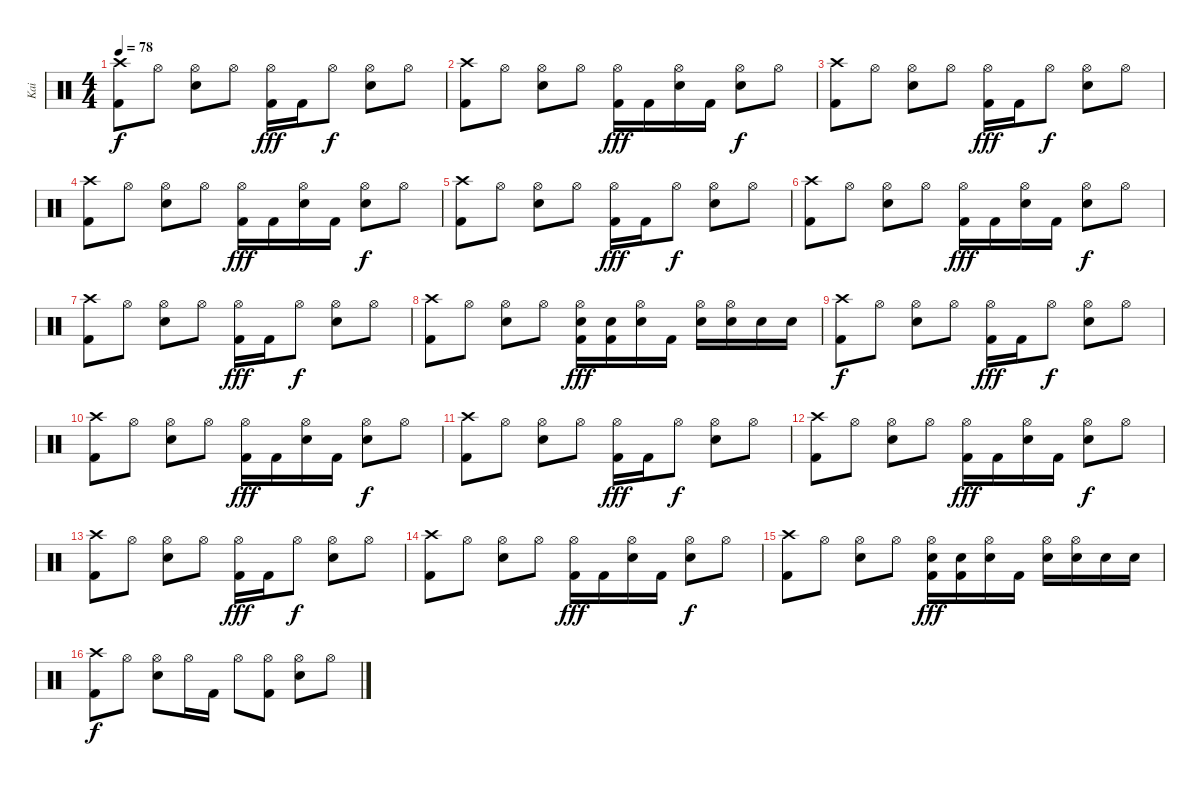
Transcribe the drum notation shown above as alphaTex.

\track ("Kai" "Kai") {instrument percussion}
\staff {score}
\articulation defaults
\ts (4 4)
\tempo 78
\clef neutral
\ks c
("Crash high (hit)" "Kick (hit) 2").8{dy f} "Hi-Hat (open)".8 ("Hi-Hat (open)" "Electric Snare (hit)").8 "Hi-Hat (open)".8 ("Hi-Hat (open)" "Kick (hit) 2").16{dy fff} "Kick (hit) 2".16 "Hi-Hat (open)".8{dy f} ("Hi-Hat (open)" "Electric Snare (hit)").8 "Hi-Hat (open)".8 |
("Crash high (hit)" "Kick (hit) 2").8 "Hi-Hat (open)".8 ("Hi-Hat (open)" "Electric Snare (hit)").8 "Hi-Hat (open)".8 ("Hi-Hat (open)" "Kick (hit) 2").16{dy fff} "Kick (hit) 2".16 ("Hi-Hat (open)" "Electric Snare (hit)").16 "Kick (hit) 2".16 ("Hi-Hat (open)" "Electric Snare (hit)").8{dy f} "Hi-Hat (open)".8 |
("Crash high (hit)" "Kick (hit) 2").8 "Hi-Hat (open)".8 ("Hi-Hat (open)" "Electric Snare (hit)").8 "Hi-Hat (open)".8 ("Hi-Hat (open)" "Kick (hit) 2").16{dy fff} "Kick (hit) 2".16 "Hi-Hat (open)".8{dy f} ("Hi-Hat (open)" "Electric Snare (hit)").8 "Hi-Hat (open)".8 |
("Crash high (hit)" "Kick (hit) 2").8 "Hi-Hat (open)".8 ("Hi-Hat (open)" "Electric Snare (hit)").8 "Hi-Hat (open)".8 ("Hi-Hat (open)" "Kick (hit) 2").16{dy fff} "Kick (hit) 2".16 ("Hi-Hat (open)" "Electric Snare (hit)").16 "Kick (hit) 2".16 ("Hi-Hat (open)" "Electric Snare (hit)").8{dy f} "Hi-Hat (open)".8 |
("Crash high (hit)" "Kick (hit) 2").8 "Hi-Hat (open)".8 ("Hi-Hat (open)" "Electric Snare (hit)").8 "Hi-Hat (open)".8 ("Hi-Hat (open)" "Kick (hit) 2").16{dy fff} "Kick (hit) 2".16 "Hi-Hat (open)".8{dy f} ("Hi-Hat (open)" "Electric Snare (hit)").8 "Hi-Hat (open)".8 |
("Crash high (hit)" "Kick (hit) 2").8 "Hi-Hat (open)".8 ("Hi-Hat (open)" "Electric Snare (hit)").8 "Hi-Hat (open)".8 ("Hi-Hat (open)" "Kick (hit) 2").16{dy fff} "Kick (hit) 2".16 ("Hi-Hat (open)" "Electric Snare (hit)").16 "Kick (hit) 2".16 ("Hi-Hat (open)" "Electric Snare (hit)").8{dy f} "Hi-Hat (open)".8 |
("Crash high (hit)" "Kick (hit) 2").8 "Hi-Hat (open)".8 ("Hi-Hat (open)" "Electric Snare (hit)").8 "Hi-Hat (open)".8 ("Hi-Hat (open)" "Kick (hit) 2").16{dy fff} "Kick (hit) 2".16 "Hi-Hat (open)".8{dy f} ("Hi-Hat (open)" "Electric Snare (hit)").8 "Hi-Hat (open)".8 |
("Crash high (hit)" "Kick (hit) 2").8 "Hi-Hat (open)".8 ("Hi-Hat (open)" "Electric Snare (hit)").8 "Hi-Hat (open)".8 ("Hi-Hat (open)" "Electric Snare (hit)" "Kick (hit) 2").16{dy fff} ("Electric Snare (hit)" "Kick (hit) 2").16 ("Hi-Hat (open)" "Electric Snare (hit)").16 "Kick (hit) 2".16 ("Hi-Hat (open)" "Electric Snare (hit)").16 ("Hi-Hat (open)" "Electric Snare (hit)").16 "Electric Snare (hit)".16 "Electric Snare (hit)".16 |
("Crash high (hit)" "Kick (hit) 2").8{dy f} "Hi-Hat (open)".8 ("Hi-Hat (open)" "Electric Snare (hit)").8 "Hi-Hat (open)".8 ("Hi-Hat (open)" "Kick (hit) 2").16{dy fff} "Kick (hit) 2".16 "Hi-Hat (open)".8{dy f} ("Hi-Hat (open)" "Electric Snare (hit)").8 "Hi-Hat (open)".8 |
("Crash high (hit)" "Kick (hit) 2").8 "Hi-Hat (open)".8 ("Hi-Hat (open)" "Electric Snare (hit)").8 "Hi-Hat (open)".8 ("Hi-Hat (open)" "Kick (hit) 2").16{dy fff} "Kick (hit) 2".16 ("Hi-Hat (open)" "Electric Snare (hit)").16 "Kick (hit) 2".16 ("Hi-Hat (open)" "Electric Snare (hit)").8{dy f} "Hi-Hat (open)".8 |
("Crash high (hit)" "Kick (hit) 2").8 "Hi-Hat (open)".8 ("Hi-Hat (open)" "Electric Snare (hit)").8 "Hi-Hat (open)".8 ("Hi-Hat (open)" "Kick (hit) 2").16{dy fff} "Kick (hit) 2".16 "Hi-Hat (open)".8{dy f} ("Hi-Hat (open)" "Electric Snare (hit)").8 "Hi-Hat (open)".8 |
("Crash high (hit)" "Kick (hit) 2").8 "Hi-Hat (open)".8 ("Hi-Hat (open)" "Electric Snare (hit)").8 "Hi-Hat (open)".8 ("Hi-Hat (open)" "Kick (hit) 2").16{dy fff} "Kick (hit) 2".16 ("Hi-Hat (open)" "Electric Snare (hit)").16 "Kick (hit) 2".16 ("Hi-Hat (open)" "Electric Snare (hit)").8{dy f} "Hi-Hat (open)".8 |
("Crash high (hit)" "Kick (hit) 2").8 "Hi-Hat (open)".8 ("Hi-Hat (open)" "Electric Snare (hit)").8 "Hi-Hat (open)".8 ("Hi-Hat (open)" "Kick (hit) 2").16{dy fff} "Kick (hit) 2".16 "Hi-Hat (open)".8{dy f} ("Hi-Hat (open)" "Electric Snare (hit)").8 "Hi-Hat (open)".8 |
("Crash high (hit)" "Kick (hit) 2").8 "Hi-Hat (open)".8 ("Hi-Hat (open)" "Electric Snare (hit)").8 "Hi-Hat (open)".8 ("Hi-Hat (open)" "Kick (hit) 2").16{dy fff} "Kick (hit) 2".16 ("Hi-Hat (open)" "Electric Snare (hit)").16 "Kick (hit) 2".16 ("Hi-Hat (open)" "Electric Snare (hit)").8{dy f} "Hi-Hat (open)".8 |
("Crash high (hit)" "Kick (hit) 2").8 "Hi-Hat (open)".8 ("Hi-Hat (open)" "Electric Snare (hit)").8 "Hi-Hat (open)".8 ("Hi-Hat (open)" "Electric Snare (hit)" "Kick (hit) 2").16{dy fff} ("Electric Snare (hit)" "Kick (hit) 2").16 ("Hi-Hat (open)" "Electric Snare (hit)").16 "Kick (hit) 2".16 ("Hi-Hat (open)" "Electric Snare (hit)").16 ("Hi-Hat (open)" "Electric Snare (hit)").16 "Electric Snare (hit)".16 "Electric Snare (hit)".16 |
("Crash high (hit)" "Kick (hit) 2").8{dy f} "Hi-Hat (open)".8 ("Hi-Hat (open)" "Electric Snare (hit)").8 "Hi-Hat (open)".16 "Kick (hit) 2".16 "Hi-Hat (open)".8 ("Hi-Hat (open)" "Kick (hit) 2").8 ("Hi-Hat (open)" "Electric Snare (hit)").8 "Hi-Hat (open)".8
